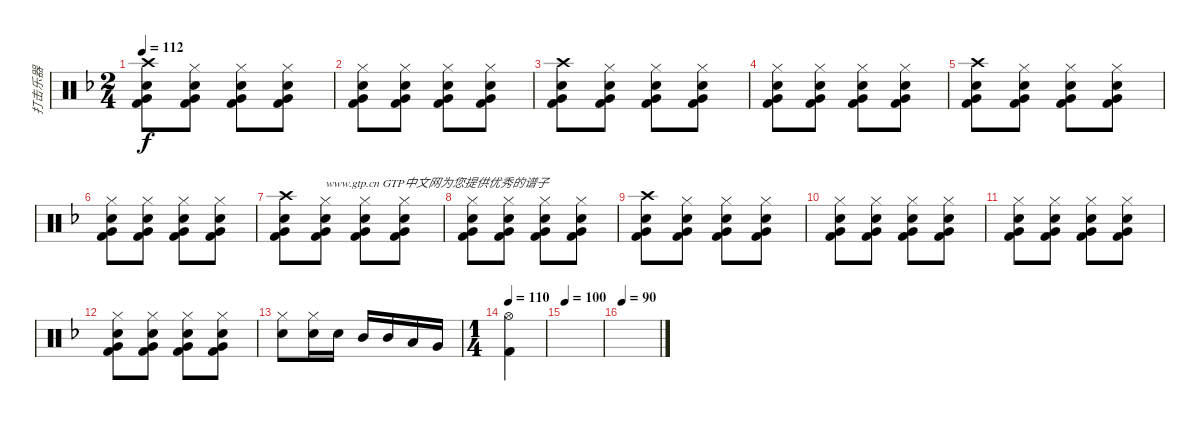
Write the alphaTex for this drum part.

\track ("打击乐器" "打击乐器") {instrument percussion}
\staff {score}
\articulation defaults
\ts (2 4)
\tempo 112
\clef neutral
\ks f
("Crash high (hit)" "Very Low Tom (hit)" "Snare (hit) 2" "Kick (hit) 2").8{dy f} ("Hi-Hat (closed)" "Very Low Tom (hit)" "Snare (hit) 2" "Kick (hit) 2").8 ("Hi-Hat (closed)" "Very Low Tom (hit)" "Snare (hit) 2" "Kick (hit) 2").8 ("Hi-Hat (closed)" "Very Low Tom (hit)" "Snare (hit) 2" "Kick (hit) 2").8 |
("Hi-Hat (closed)" "Very Low Tom (hit)" "Snare (hit) 2" "Kick (hit) 2").8 ("Hi-Hat (closed)" "Very Low Tom (hit)" "Snare (hit) 2" "Kick (hit) 2").8 ("Hi-Hat (closed)" "Very Low Tom (hit)" "Snare (hit) 2" "Kick (hit) 2").8 ("Hi-Hat (closed)" "Very Low Tom (hit)" "Snare (hit) 2" "Kick (hit) 2").8 |
("Crash high (hit)" "Very Low Tom (hit)" "Snare (hit) 2" "Kick (hit) 2").8 ("Hi-Hat (closed)" "Very Low Tom (hit)" "Snare (hit) 2" "Kick (hit) 2").8 ("Hi-Hat (closed)" "Very Low Tom (hit)" "Snare (hit) 2" "Kick (hit) 2").8 ("Hi-Hat (closed)" "Very Low Tom (hit)" "Snare (hit) 2" "Kick (hit) 2").8 |
("Hi-Hat (closed)" "Very Low Tom (hit)" "Snare (hit) 2" "Kick (hit) 2").8 ("Hi-Hat (closed)" "Very Low Tom (hit)" "Snare (hit) 2" "Kick (hit) 2").8 ("Hi-Hat (closed)" "Very Low Tom (hit)" "Snare (hit) 2" "Kick (hit) 2").8 ("Hi-Hat (closed)" "Very Low Tom (hit)" "Snare (hit) 2" "Kick (hit) 2").8 |
("Crash high (hit)" "Very Low Tom (hit)" "Snare (hit) 2" "Kick (hit) 2").8 ("Hi-Hat (closed)" "Very Low Tom (hit)" "Snare (hit) 2" "Kick (hit) 2").8 ("Hi-Hat (closed)" "Very Low Tom (hit)" "Snare (hit) 2" "Kick (hit) 2").8 ("Hi-Hat (closed)" "Very Low Tom (hit)" "Snare (hit) 2" "Kick (hit) 2").8 |
("Hi-Hat (closed)" "Very Low Tom (hit)" "Snare (hit) 2" "Kick (hit) 2").8 ("Hi-Hat (closed)" "Very Low Tom (hit)" "Snare (hit) 2" "Kick (hit) 2").8 ("Hi-Hat (closed)" "Very Low Tom (hit)" "Snare (hit) 2" "Kick (hit) 2").8 ("Hi-Hat (closed)" "Very Low Tom (hit)" "Snare (hit) 2" "Kick (hit) 2").8 |
("Crash high (hit)" "Very Low Tom (hit)" "Snare (hit) 2" "Kick (hit) 2").8 ("Hi-Hat (closed)" "Very Low Tom (hit)" "Snare (hit) 2" "Kick (hit) 2").8{txt "www.gtp.cn GTP中文网为您提供优秀的谱子"} ("Hi-Hat (closed)" "Very Low Tom (hit)" "Snare (hit) 2" "Kick (hit) 2").8 ("Hi-Hat (closed)" "Very Low Tom (hit)" "Snare (hit) 2" "Kick (hit) 2").8 |
("Hi-Hat (closed)" "Very Low Tom (hit)" "Snare (hit) 2" "Kick (hit) 2").8 ("Hi-Hat (closed)" "Very Low Tom (hit)" "Snare (hit) 2" "Kick (hit) 2").8 ("Hi-Hat (closed)" "Very Low Tom (hit)" "Snare (hit) 2" "Kick (hit) 2").8 ("Hi-Hat (closed)" "Very Low Tom (hit)" "Snare (hit) 2" "Kick (hit) 2").8 |
("Crash high (hit)" "Very Low Tom (hit)" "Snare (hit) 2" "Kick (hit) 2").8 ("Hi-Hat (closed)" "Very Low Tom (hit)" "Snare (hit) 2" "Kick (hit) 2").8 ("Hi-Hat (closed)" "Very Low Tom (hit)" "Snare (hit) 2" "Kick (hit) 2").8 ("Hi-Hat (closed)" "Very Low Tom (hit)" "Snare (hit) 2" "Kick (hit) 2").8 |
("Hi-Hat (closed)" "Very Low Tom (hit)" "Snare (hit) 2" "Kick (hit) 2").8 ("Hi-Hat (closed)" "Very Low Tom (hit)" "Snare (hit) 2" "Kick (hit) 2").8 ("Hi-Hat (closed)" "Very Low Tom (hit)" "Snare (hit) 2" "Kick (hit) 2").8 ("Hi-Hat (closed)" "Very Low Tom (hit)" "Snare (hit) 2" "Kick (hit) 2").8 |
("Hi-Hat (closed)" "Very Low Tom (hit)" "Snare (hit) 2" "Kick (hit) 2").8 ("Hi-Hat (closed)" "Very Low Tom (hit)" "Snare (hit) 2" "Kick (hit) 2").8 ("Hi-Hat (closed)" "Very Low Tom (hit)" "Snare (hit) 2" "Kick (hit) 2").8 ("Hi-Hat (closed)" "Very Low Tom (hit)" "Snare (hit) 2" "Kick (hit) 2").8 |
("Hi-Hat (closed)" "Very Low Tom (hit)" "Snare (hit) 2" "Kick (hit) 2").8 ("Hi-Hat (closed)" "Very Low Tom (hit)" "Snare (hit) 2" "Kick (hit) 2").8 ("Hi-Hat (closed)" "Very Low Tom (hit)" "Snare (hit) 2" "Kick (hit) 2").8 ("Hi-Hat (closed)" "Very Low Tom (hit)" "Snare (hit) 2" "Kick (hit) 2").8 |
("Hi-Hat (closed)" "Snare (hit) 2").8 ("Hi-Hat (closed)" "Snare (hit) 2").16 "Snare (hit) 2".16 "Mid Tom (hit)".16 "Mid Tom (hit)".16 "Low Tom (hit)".16 "Very Low Tom (hit)".16 |
\ts (1 4)
\tempo 110
("Hi-Hat (open)" "Kick (hit) 2").4 |
\tempo 100
|
\tempo 90
